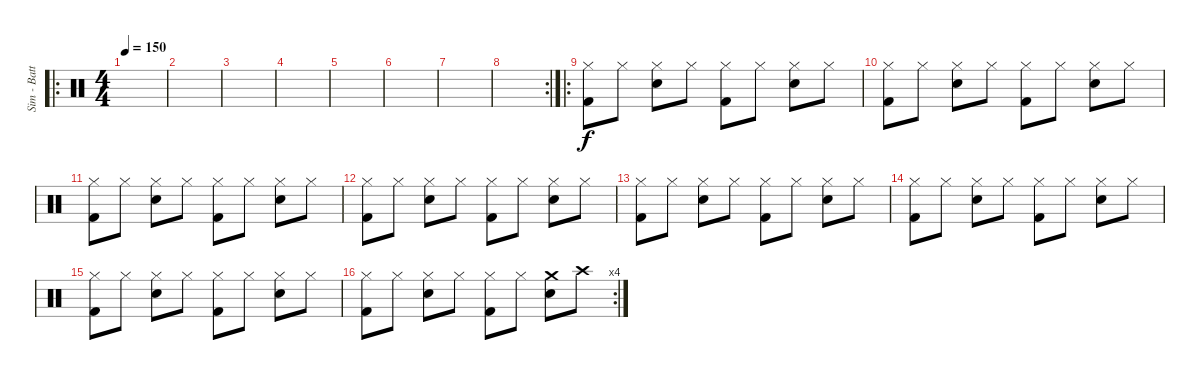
\track ("Sim - Batterie-" "Sim - Batt") {instrument percussion}
\staff {score}
\articulation defaults
\ro
\ts (4 4)
\tempo 150
\clef neutral
\ks c
|
|
|
|
|
|
|
\rc 2
|
\ro
("Hi-Hat (closed)" "Kick (hit) 2").8 "Hi-Hat (closed)".8 ("Hi-Hat (closed)" "Snare (hit) 2").8 "Hi-Hat (closed)".8 ("Hi-Hat (closed)" "Kick (hit) 2").8 "Hi-Hat (closed)".8 ("Hi-Hat (closed)" "Snare (hit) 2").8 "Hi-Hat (closed)".8 |
("Hi-Hat (closed)" "Kick (hit) 2").8 "Hi-Hat (closed)".8 ("Hi-Hat (closed)" "Snare (hit) 2").8 "Hi-Hat (closed)".8 ("Hi-Hat (closed)" "Kick (hit) 2").8 "Hi-Hat (closed)".8 ("Hi-Hat (closed)" "Snare (hit) 2").8 "Hi-Hat (closed)".8 |
("Hi-Hat (closed)" "Kick (hit) 2").8 "Hi-Hat (closed)".8 ("Hi-Hat (closed)" "Snare (hit) 2").8 "Hi-Hat (closed)".8 ("Hi-Hat (closed)" "Kick (hit) 2").8 "Hi-Hat (closed)".8 ("Hi-Hat (closed)" "Snare (hit) 2").8 "Hi-Hat (closed)".8 |
("Hi-Hat (closed)" "Kick (hit) 2").8 "Hi-Hat (closed)".8 ("Hi-Hat (closed)" "Snare (hit) 2").8 "Hi-Hat (closed)".8 ("Hi-Hat (closed)" "Kick (hit) 2").8 "Hi-Hat (closed)".8 ("Hi-Hat (closed)" "Snare (hit) 2").8 "Hi-Hat (closed)".8 |
("Hi-Hat (closed)" "Kick (hit) 2").8 "Hi-Hat (closed)".8 ("Hi-Hat (closed)" "Snare (hit) 2").8 "Hi-Hat (closed)".8 ("Hi-Hat (closed)" "Kick (hit) 2").8 "Hi-Hat (closed)".8 ("Hi-Hat (closed)" "Snare (hit) 2").8 "Hi-Hat (closed)".8 |
("Hi-Hat (closed)" "Kick (hit) 2").8 "Hi-Hat (closed)".8 ("Hi-Hat (closed)" "Snare (hit) 2").8 "Hi-Hat (closed)".8 ("Hi-Hat (closed)" "Kick (hit) 2").8 "Hi-Hat (closed)".8 ("Hi-Hat (closed)" "Snare (hit) 2").8 "Hi-Hat (closed)".8 |
("Hi-Hat (closed)" "Kick (hit) 2").8 "Hi-Hat (closed)".8 ("Hi-Hat (closed)" "Snare (hit) 2").8 "Hi-Hat (closed)".8 ("Hi-Hat (closed)" "Kick (hit) 2").8 "Hi-Hat (closed)".8 ("Hi-Hat (closed)" "Snare (hit) 2").8 "Hi-Hat (closed)".8 |
\rc 4
("Hi-Hat (closed)" "Kick (hit) 2").8 "Hi-Hat (closed)".8 ("Hi-Hat (closed)" "Snare (hit) 2").8 "Hi-Hat (closed)".8 ("Hi-Hat (closed)" "Kick (hit) 2").8 "Hi-Hat (closed)".8 ("Crash medium (hit)" "Snare (hit) 2").8 "Crash high (hit)".8
